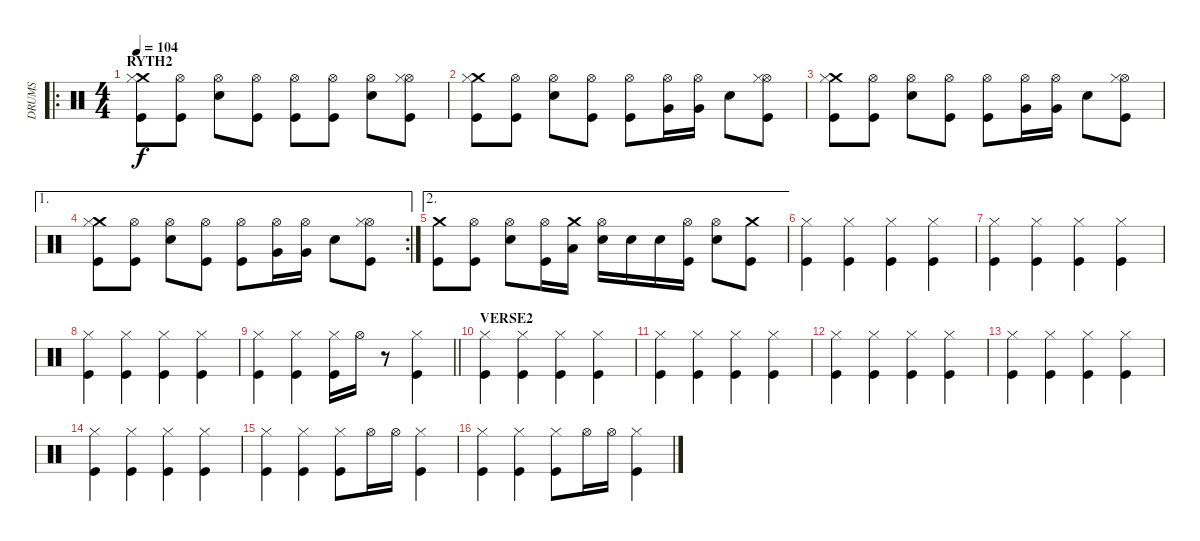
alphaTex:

\track ("DRUMS" "DRUMS") {instrument percussion}
\staff {score}
\articulation defaults
\ro
\ts (4 4)
\section ("" "RYTH2")
\tempo 104
\clef neutral
\ks c
("Kick (hit)" "Crash medium (hit)" "Hi-Hat (closed)").8{dy f} ("Kick (hit)" "Hi-Hat (open)").8 ("Snare (hit) 2" "Hi-Hat (open)").8 ("Kick (hit)" "Hi-Hat (open)").8 ("Kick (hit)" "Hi-Hat (open)").8 ("Kick (hit)" "Hi-Hat (open)").8 ("Snare (hit) 2" "Hi-Hat (open)").8 ("Kick (hit)" "Hi-Hat (open)" "Hi-Hat (closed)").8 |
("Kick (hit)" "Crash medium (hit)" "Hi-Hat (closed)").8 ("Kick (hit)" "Hi-Hat (open)").8 ("Snare (hit) 2" "Hi-Hat (open)").8 ("Kick (hit)" "Hi-Hat (open)").8 ("Kick (hit)" "Hi-Hat (open)").8 ("Very Low Tom (hit)" "Hi-Hat (open)").16 ("Very Low Tom (hit)" "Hi-Hat (open)").16 "Snare (hit) 2".8 ("Kick (hit)" "Hi-Hat (open)" "Hi-Hat (closed)").8 |
("Kick (hit)" "Crash medium (hit)" "Hi-Hat (closed)").8 ("Kick (hit)" "Hi-Hat (open)").8 ("Snare (hit) 2" "Hi-Hat (open)").8 ("Kick (hit)" "Hi-Hat (open)").8 ("Kick (hit)" "Hi-Hat (open)").8 ("Very Low Tom (hit)" "Hi-Hat (open)").16 ("Very Low Tom (hit)" "Hi-Hat (open)").16 "Snare (hit) 2".8 ("Kick (hit)" "Hi-Hat (open)" "Hi-Hat (closed)").8 |
\ae 1
\rc 2
("Kick (hit)" "Crash medium (hit)" "Hi-Hat (closed)").8 ("Kick (hit)" "Hi-Hat (open)").8 ("Snare (hit) 2" "Hi-Hat (open)").8 ("Kick (hit)" "Hi-Hat (open)").8 ("Kick (hit)" "Hi-Hat (open)").8 ("Very Low Tom (hit)" "Hi-Hat (open)").16 ("Very Low Tom (hit)" "Hi-Hat (open)").16 "Snare (hit) 2".8 ("Kick (hit)" "Hi-Hat (open)" "Hi-Hat (closed)").8 |
\ae 2
("Kick (hit)" "Crash medium (hit)").8 ("Kick (hit)" "Hi-Hat (open)").8 ("Snare (hit) 2" "Hi-Hat (open)").8 ("Kick (hit)" "Hi-Hat (open)").16 ("Low Floor Tom (hit)" "Crash medium (hit)").16 ("Snare (hit) 2" "Hi-Hat (open)").16 "Snare (hit) 2".16 "Snare (hit) 2".16 ("Kick (hit)" "Hi-Hat (open)").16 ("Snare (hit) 2" "Hi-Hat (open)").8 ("Kick (hit)" "Crash medium (hit)").8 |
("Kick (hit)" "Hi-Hat (closed)").4 ("Hi-Hat (closed)" "Kick (hit)").4 ("Hi-Hat (closed)" "Kick (hit)").4 ("Hi-Hat (closed)" "Kick (hit)").4 |
("Kick (hit)" "Hi-Hat (closed)").4 ("Hi-Hat (closed)" "Kick (hit)").4 ("Hi-Hat (closed)" "Kick (hit)").4 ("Hi-Hat (closed)" "Kick (hit)").4 |
("Kick (hit)" "Hi-Hat (closed)").4 ("Hi-Hat (closed)" "Kick (hit)").4 ("Hi-Hat (closed)" "Kick (hit)").4 ("Hi-Hat (closed)" "Kick (hit)").4 |
\barLineRight lightlight
("Kick (hit)" "Hi-Hat (closed)").4 ("Hi-Hat (closed)" "Kick (hit)").4 ("Hi-Hat (closed)" "Kick (hit)").16 "Hi-Hat (open)".16 r.8 ("Hi-Hat (closed)" "Kick (hit)").4 |
\section ("" "VERSE2")
("Hi-Hat (closed)" "Kick (hit)").4 ("Hi-Hat (closed)" "Kick (hit)").4 ("Hi-Hat (closed)" "Kick (hit)").4 ("Hi-Hat (closed)" "Kick (hit)").4 |
("Hi-Hat (closed)" "Kick (hit)").4 ("Hi-Hat (closed)" "Kick (hit)").4 ("Hi-Hat (closed)" "Kick (hit)").4 ("Hi-Hat (closed)" "Kick (hit)").4 |
("Hi-Hat (closed)" "Kick (hit)").4 ("Hi-Hat (closed)" "Kick (hit)").4 ("Hi-Hat (closed)" "Kick (hit)").4 ("Hi-Hat (closed)" "Kick (hit)").4 |
("Hi-Hat (closed)" "Kick (hit)").4 ("Hi-Hat (closed)" "Kick (hit)").4 ("Hi-Hat (closed)" "Kick (hit)").4 ("Hi-Hat (closed)" "Kick (hit)").4 |
("Hi-Hat (closed)" "Kick (hit)").4 ("Hi-Hat (closed)" "Kick (hit)").4 ("Hi-Hat (closed)" "Kick (hit)").4 ("Hi-Hat (closed)" "Kick (hit)").4 |
("Kick (hit)" "Hi-Hat (closed)").4 ("Hi-Hat (closed)" "Kick (hit)").4 ("Hi-Hat (closed)" "Kick (hit)").8 "Hi-Hat (open)".16 "Hi-Hat (open)".16 ("Hi-Hat (closed)" "Kick (hit)").4 |
("Kick (hit)" "Hi-Hat (closed)").4 ("Hi-Hat (closed)" "Kick (hit)").4 ("Hi-Hat (closed)" "Kick (hit)").8 "Hi-Hat (open)".16 "Hi-Hat (open)".16 ("Hi-Hat (closed)" "Kick (hit)").4
